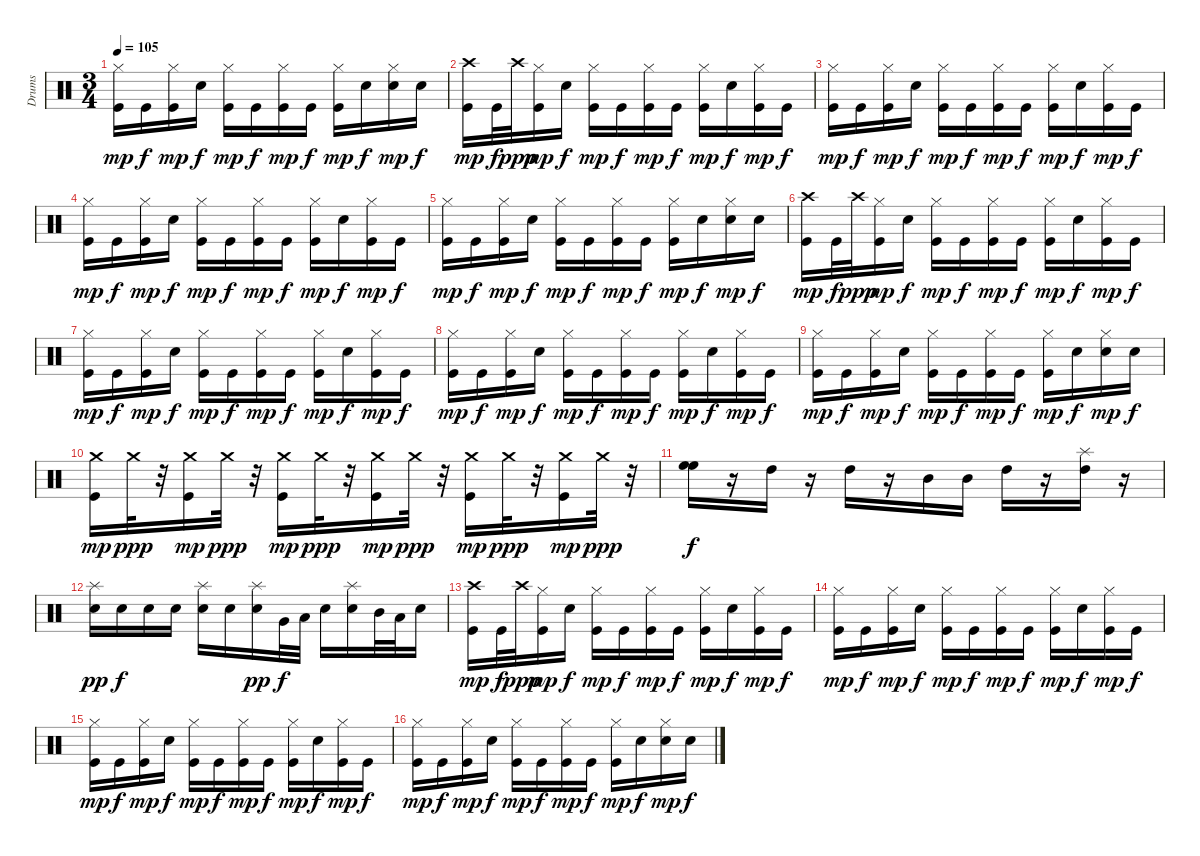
\track ("Drums" "Drums") {instrument percussion}
\staff {score}
\articulation defaults
\ts (3 4)
\tempo 105
\clef neutral
\ks c
("Hi-Hat (closed)" "Kick (hit)").16{dy mp} "Kick (hit)".16{dy f} ("Hi-Hat (closed)" "Kick (hit)").16{dy mp} "Snare (hit) 2".16{dy f} ("Hi-Hat (closed)" "Kick (hit)").16{dy mp} "Kick (hit)".16{dy f} ("Hi-Hat (closed)" "Kick (hit)").16{dy mp} "Kick (hit)".16{dy f} ("Hi-Hat (closed)" "Kick (hit)").16{dy mp} "Snare (hit) 2".16{dy f} ("Hi-Hat (closed)" "Snare (hit) 2").16{dy mp} "Snare (hit) 2".16{dy f} |
("Crash high (hit)" "Kick (hit)").16{dy mp} "Kick (hit)".32{dy f} "Crash high (hit)".32{dy ppp} ("Hi-Hat (closed)" "Kick (hit)").16{dy mp} "Snare (hit) 2".16{dy f} ("Hi-Hat (closed)" "Kick (hit)").16{dy mp} "Kick (hit)".16{dy f} ("Hi-Hat (closed)" "Kick (hit)").16{dy mp} "Kick (hit)".16{dy f} ("Hi-Hat (closed)" "Kick (hit)").16{dy mp} "Snare (hit) 2".16{dy f} ("Hi-Hat (closed)" "Kick (hit)").16{dy mp} "Kick (hit)".16{dy f} |
("Hi-Hat (closed)" "Kick (hit)").16{dy mp} "Kick (hit)".16{dy f} ("Hi-Hat (closed)" "Kick (hit)").16{dy mp} "Snare (hit) 2".16{dy f} ("Hi-Hat (closed)" "Kick (hit)").16{dy mp} "Kick (hit)".16{dy f} ("Hi-Hat (closed)" "Kick (hit)").16{dy mp} "Kick (hit)".16{dy f} ("Hi-Hat (closed)" "Kick (hit)").16{dy mp} "Snare (hit) 2".16{dy f} ("Hi-Hat (closed)" "Kick (hit)").16{dy mp} "Kick (hit)".16{dy f} |
("Hi-Hat (closed)" "Kick (hit)").16{dy mp} "Kick (hit)".16{dy f} ("Hi-Hat (closed)" "Kick (hit)").16{dy mp} "Snare (hit) 2".16{dy f} ("Hi-Hat (closed)" "Kick (hit)").16{dy mp} "Kick (hit)".16{dy f} ("Hi-Hat (closed)" "Kick (hit)").16{dy mp} "Kick (hit)".16{dy f} ("Hi-Hat (closed)" "Kick (hit)").16{dy mp} "Snare (hit) 2".16{dy f} ("Hi-Hat (closed)" "Kick (hit)").16{dy mp} "Kick (hit)".16{dy f} |
("Hi-Hat (closed)" "Kick (hit)").16{dy mp} "Kick (hit)".16{dy f} ("Hi-Hat (closed)" "Kick (hit)").16{dy mp} "Snare (hit) 2".16{dy f} ("Hi-Hat (closed)" "Kick (hit)").16{dy mp} "Kick (hit)".16{dy f} ("Hi-Hat (closed)" "Kick (hit)").16{dy mp} "Kick (hit)".16{dy f} ("Hi-Hat (closed)" "Kick (hit)").16{dy mp} "Snare (hit) 2".16{dy f} ("Hi-Hat (closed)" "Snare (hit) 2").16{dy mp} "Snare (hit) 2".16{dy f} |
("Crash high (hit)" "Kick (hit)").16{dy mp} "Kick (hit)".32{dy f} "Crash high (hit)".32{dy ppp} ("Hi-Hat (closed)" "Kick (hit)").16{dy mp} "Snare (hit) 2".16{dy f} ("Hi-Hat (closed)" "Kick (hit)").16{dy mp} "Kick (hit)".16{dy f} ("Hi-Hat (closed)" "Kick (hit)").16{dy mp} "Kick (hit)".16{dy f} ("Hi-Hat (closed)" "Kick (hit)").16{dy mp} "Snare (hit) 2".16{dy f} ("Hi-Hat (closed)" "Kick (hit)").16{dy mp} "Kick (hit)".16{dy f} |
("Hi-Hat (closed)" "Kick (hit)").16{dy mp} "Kick (hit)".16{dy f} ("Hi-Hat (closed)" "Kick (hit)").16{dy mp} "Snare (hit) 2".16{dy f} ("Hi-Hat (closed)" "Kick (hit)").16{dy mp} "Kick (hit)".16{dy f} ("Hi-Hat (closed)" "Kick (hit)").16{dy mp} "Kick (hit)".16{dy f} ("Hi-Hat (closed)" "Kick (hit)").16{dy mp} "Snare (hit) 2".16{dy f} ("Hi-Hat (closed)" "Kick (hit)").16{dy mp} "Kick (hit)".16{dy f} |
("Hi-Hat (closed)" "Kick (hit)").16{dy mp} "Kick (hit)".16{dy f} ("Hi-Hat (closed)" "Kick (hit)").16{dy mp} "Snare (hit) 2".16{dy f} ("Hi-Hat (closed)" "Kick (hit)").16{dy mp} "Kick (hit)".16{dy f} ("Hi-Hat (closed)" "Kick (hit)").16{dy mp} "Kick (hit)".16{dy f} ("Hi-Hat (closed)" "Kick (hit)").16{dy mp} "Snare (hit) 2".16{dy f} ("Hi-Hat (closed)" "Kick (hit)").16{dy mp} "Kick (hit)".16{dy f} |
("Hi-Hat (closed)" "Kick (hit)").16{dy mp} "Kick (hit)".16{dy f} ("Hi-Hat (closed)" "Kick (hit)").16{dy mp} "Snare (hit) 2".16{dy f} ("Hi-Hat (closed)" "Kick (hit)").16{dy mp} "Kick (hit)".16{dy f} ("Hi-Hat (closed)" "Kick (hit)").16{dy mp} "Kick (hit)".16{dy f} ("Hi-Hat (closed)" "Kick (hit)").16{dy mp} "Snare (hit) 2".16{dy f} ("Hi-Hat (closed)" "Snare (hit) 2").16{dy mp} "Snare (hit) 2".16{dy f} |
("Crash medium (hit)" "Kick (hit)").16{dy mp} "Crash medium (hit)".32{dy ppp} r.32 ("Crash medium (hit)" "Kick (hit)").16{dy mp} "Crash medium (hit)".32{dy ppp} r.32 ("Crash medium (hit)" "Kick (hit)").16{dy mp} "Crash medium (hit)".32{dy ppp} r.32 ("Crash medium (hit)" "Kick (hit)").16{dy mp} "Crash medium (hit)".32{dy ppp} r.32 ("Crash medium (hit)" "Kick (hit)").16{dy mp} "Crash medium (hit)".32{dy ppp} r.32 ("Crash medium (hit)" "Kick (hit)").16{dy mp} "Crash medium (hit)".32{dy ppp} r.32 |
("High Floor Tom (hit)" "High Floor Tom (hit)").16{dy f} r.16 "High Tom (hit)".16 r.16 "High Tom (hit)".16 r.16 "Mid Tom (hit)".16 "Mid Tom (hit)".16 "High Tom (hit)".16 r.16 ("Splash (hit)" "High Tom (hit)").16 r.16 |
("Splash (hit)" "Snare (hit) 2").16{dy pp} "Snare (hit) 2".16{dy f} "Snare (hit) 2".16 "Snare (hit) 2".16 ("Splash (hit)" "Snare (hit) 2").16 "Snare (hit) 2".16 ("Splash (hit)" "Snare (hit) 2").16{dy pp} "Very Low Tom (hit)".32{dy f} "Low Floor Tom (hit)".32 "Snare (hit) 2".16 ("Splash (hit)" "Snare (hit) 2").16 "Mid Tom (hit)".32 "Low Tom (hit)".32 "Snare (hit) 2".16 |
("Crash high (hit)" "Kick (hit)").16{dy mp} "Kick (hit)".32{dy f} "Crash high (hit)".32{dy ppp} ("Hi-Hat (closed)" "Kick (hit)").16{dy mp} "Snare (hit) 2".16{dy f} ("Hi-Hat (closed)" "Kick (hit)").16{dy mp} "Kick (hit)".16{dy f} ("Hi-Hat (closed)" "Kick (hit)").16{dy mp} "Kick (hit)".16{dy f} ("Hi-Hat (closed)" "Kick (hit)").16{dy mp} "Snare (hit) 2".16{dy f} ("Hi-Hat (closed)" "Kick (hit)").16{dy mp} "Kick (hit)".16{dy f} |
("Hi-Hat (closed)" "Kick (hit)").16{dy mp} "Kick (hit)".16{dy f} ("Hi-Hat (closed)" "Kick (hit)").16{dy mp} "Snare (hit) 2".16{dy f} ("Hi-Hat (closed)" "Kick (hit)").16{dy mp} "Kick (hit)".16{dy f} ("Hi-Hat (closed)" "Kick (hit)").16{dy mp} "Kick (hit)".16{dy f} ("Hi-Hat (closed)" "Kick (hit)").16{dy mp} "Snare (hit) 2".16{dy f} ("Hi-Hat (closed)" "Kick (hit)").16{dy mp} "Kick (hit)".16{dy f} |
("Hi-Hat (closed)" "Kick (hit)").16{dy mp} "Kick (hit)".16{dy f} ("Hi-Hat (closed)" "Kick (hit)").16{dy mp} "Snare (hit) 2".16{dy f} ("Hi-Hat (closed)" "Kick (hit)").16{dy mp} "Kick (hit)".16{dy f} ("Hi-Hat (closed)" "Kick (hit)").16{dy mp} "Kick (hit)".16{dy f} ("Hi-Hat (closed)" "Kick (hit)").16{dy mp} "Snare (hit) 2".16{dy f} ("Hi-Hat (closed)" "Kick (hit)").16{dy mp} "Kick (hit)".16{dy f} |
("Hi-Hat (closed)" "Kick (hit)").16{dy mp} "Kick (hit)".16{dy f} ("Hi-Hat (closed)" "Kick (hit)").16{dy mp} "Snare (hit) 2".16{dy f} ("Hi-Hat (closed)" "Kick (hit)").16{dy mp} "Kick (hit)".16{dy f} ("Hi-Hat (closed)" "Kick (hit)").16{dy mp} "Kick (hit)".16{dy f} ("Hi-Hat (closed)" "Kick (hit)").16{dy mp} "Snare (hit) 2".16{dy f} ("Hi-Hat (closed)" "Snare (hit) 2").16{dy mp} "Snare (hit) 2".16{dy f}
